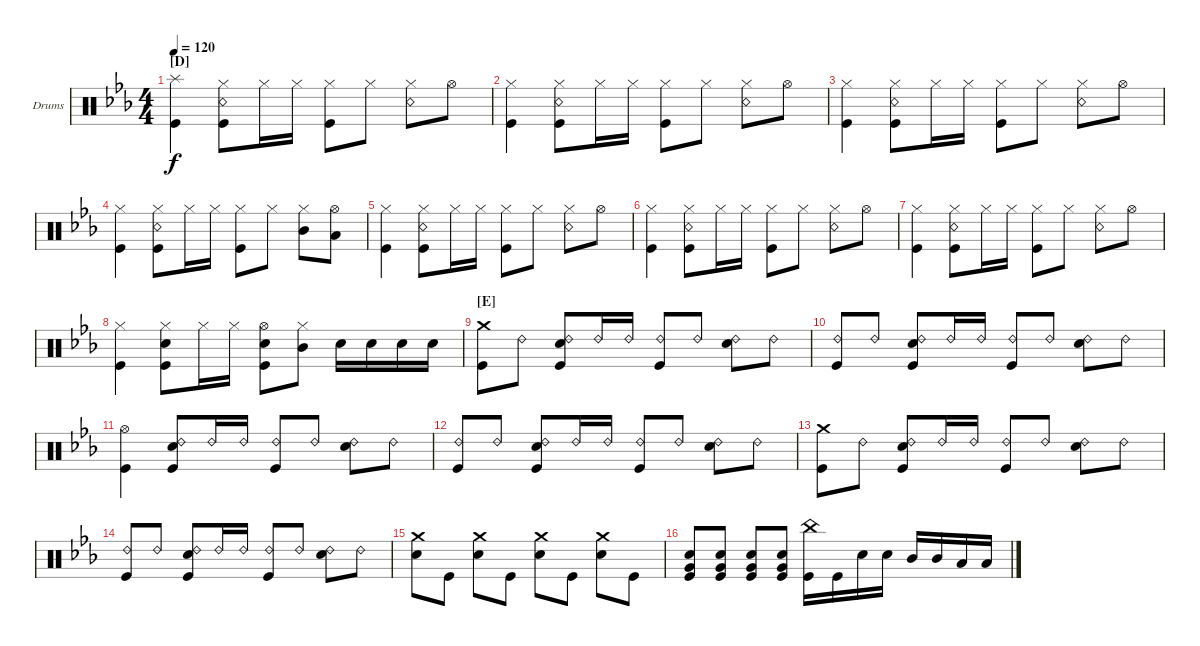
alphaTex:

\defaultSystemsLayout 4
\bracketExtendMode groupsimilarinstruments
\firstSystemTrackNameOrientation horizontal
\otherSystemsTrackNameOrientation horizontal
\track ("Drumkit" "Drums") {instrument percussion}
\staff {score}
\articulation defaults
\ts (4 4)
\section ("D" "")
\tempo 120
\clef neutral
\ks eb
("Kick (hit)" "Splash (hit)").4{dy f} ("Snare (rim shot)" "Hi-Hat (closed)" "Kick (hit)").8 "Hi-Hat (closed)".16 "Hi-Hat (closed)".16 ("Hi-Hat (closed)" "Kick (hit)").8 "Hi-Hat (closed)".8 ("Hi-Hat (closed)" "Snare (rim shot)").8 "Hi-Hat (open)".8 |
("Hi-Hat (closed)" "Kick (hit)").4 ("Snare (rim shot)" "Hi-Hat (closed)" "Kick (hit)").8 "Hi-Hat (closed)".16 "Hi-Hat (closed)".16 ("Hi-Hat (closed)" "Kick (hit)").8 "Hi-Hat (closed)".8 ("Hi-Hat (closed)" "Snare (rim shot)").8 "Hi-Hat (open)".8 |
("Hi-Hat (closed)" "Kick (hit)").4 ("Snare (rim shot)" "Hi-Hat (closed)" "Kick (hit)").8 "Hi-Hat (closed)".16 "Hi-Hat (closed)".16 ("Hi-Hat (closed)" "Kick (hit)").8 "Hi-Hat (closed)".8 ("Hi-Hat (closed)" "Snare (rim shot)").8 "Hi-Hat (open)".8 |
("Hi-Hat (closed)" "Kick (hit)").4 ("Snare (rim shot)" "Hi-Hat (closed)" "Kick (hit)").8 "Hi-Hat (closed)".16 "Hi-Hat (closed)".16 ("Hi-Hat (closed)" "Kick (hit)").8 "Hi-Hat (closed)".8 ("Hi-Hat (closed)" "Mid Tom (hit)").8 ("Hi-Hat (open)" "Low Tom (hit)").8 |
("Hi-Hat (closed)" "Kick (hit)").4 ("Snare (rim shot)" "Hi-Hat (closed)" "Kick (hit)").8 "Hi-Hat (closed)".16 "Hi-Hat (closed)".16 ("Hi-Hat (closed)" "Kick (hit)").8 "Hi-Hat (closed)".8 ("Hi-Hat (closed)" "Snare (rim shot)").8 "Hi-Hat (open)".8 |
("Hi-Hat (closed)" "Kick (hit)").4 ("Snare (rim shot)" "Hi-Hat (closed)" "Kick (hit)").8 "Hi-Hat (closed)".16 "Hi-Hat (closed)".16 ("Hi-Hat (closed)" "Kick (hit)").8 "Hi-Hat (closed)".8 ("Hi-Hat (closed)" "Snare (rim shot)").8 "Hi-Hat (open)".8 |
("Hi-Hat (closed)" "Kick (hit)").4 ("Snare (rim shot)" "Hi-Hat (closed)" "Kick (hit)").8 "Hi-Hat (closed)".16 "Hi-Hat (closed)".16 ("Hi-Hat (closed)" "Kick (hit)").8 "Hi-Hat (closed)".8 ("Hi-Hat (closed)" "Snare (rim shot)").8 "Hi-Hat (open)".8 |
("Hi-Hat (closed)" "Kick (hit)").4 ("Snare (hit) 2" "Hi-Hat (closed)" "Kick (hit)").8 "Hi-Hat (closed)".16 "Hi-Hat (closed)".16 ("Hi-Hat (open)" "Kick (hit)" "Snare (hit) 2").8 ("Mid Tom (hit)" "Hi-Hat (closed)").8 "Snare (hit) 2".16 "Snare (hit) 2".16 "Snare (hit) 2".16 "Snare (hit) 2".16 |
\section ("E" "")
("Kick (hit)" "Crash medium (hit)").8 "Ride (bell) 2".8 ("Snare (hit) 2" "Kick (hit)" "Ride (bell) 2").8 "Ride (bell) 2".16 "Ride (bell) 2".16 ("Kick (hit)" "Ride (bell) 2").8 "Ride (bell) 2".8 ("Snare (hit) 2" "Ride (bell) 2").8 "Ride (bell) 2".8 |
("Kick (hit)" "Ride (bell) 2").8 "Ride (bell) 2".8 ("Snare (hit) 2" "Kick (hit)" "Ride (bell) 2").8 "Ride (bell) 2".16 "Ride (bell) 2".16 ("Kick (hit)" "Ride (bell) 2").8 "Ride (bell) 2".8 ("Snare (hit) 2" "Ride (bell) 2").8 "Ride (bell) 2".8 |
("Hi-Hat (open)" "Kick (hit)").4 ("Snare (hit) 2" "Kick (hit)" "Ride (bell) 2").8 "Ride (bell) 2".16 "Ride (bell) 2".16 ("Kick (hit)" "Ride (bell) 2").8 "Ride (bell) 2".8 ("Snare (hit) 2" "Ride (bell) 2").8 "Ride (bell) 2".8 |
("Kick (hit)" "Ride (bell) 2").8 "Ride (bell) 2".8 ("Snare (hit) 2" "Kick (hit)" "Ride (bell) 2").8 "Ride (bell) 2".16 "Ride (bell) 2".16 ("Kick (hit)" "Ride (bell) 2").8 "Ride (bell) 2".8 ("Snare (hit) 2" "Ride (bell) 2").8 "Ride (bell) 2".8 |
("Kick (hit)" "Crash medium (hit)").8 "Ride (bell) 2".8 ("Snare (hit) 2" "Kick (hit)" "Ride (bell) 2").8 "Ride (bell) 2".16 "Ride (bell) 2".16 ("Kick (hit)" "Ride (bell) 2").8 "Ride (bell) 2".8 ("Snare (hit) 2" "Ride (bell) 2").8 "Ride (bell) 2".8 |
("Kick (hit)" "Ride (bell) 2").8 "Ride (bell) 2".8 ("Snare (hit) 2" "Kick (hit)" "Ride (bell) 2").8 "Ride (bell) 2".16 "Ride (bell) 2".16 ("Kick (hit)" "Ride (bell) 2").8 "Ride (bell) 2".8 ("Snare (hit) 2" "Ride (bell) 2").8 "Ride (bell) 2".8 |
("Snare (hit) 2" "Crash medium (hit)").8 "Kick (hit)".8 ("Snare (hit) 2" "Crash medium (hit)").8 "Kick (hit)".8 ("Snare (hit) 2" "Crash medium (hit)").8 "Kick (hit)".8 ("Snare (hit) 2" "Crash medium (hit)").8 "Kick (hit)".8 |
("Very Low Tom (hit)" "Snare (hit) 2" "Kick (hit)").8 ("Very Low Tom (hit)" "Snare (hit) 2" "Kick (hit)").8 ("Very Low Tom (hit)" "Snare (hit) 2" "Kick (hit)").8 ("Very Low Tom (hit)" "Snare (hit) 2" "Kick (hit)").8 ("China (hit)" "Kick (hit)").16 "Kick (hit)".16 "Snare (hit) 2".16 "Snare (hit) 2".16 "Mid Tom (hit)".16 "Mid Tom (hit)".16 "Low Tom (hit)".16 "Low Tom (hit)".16
